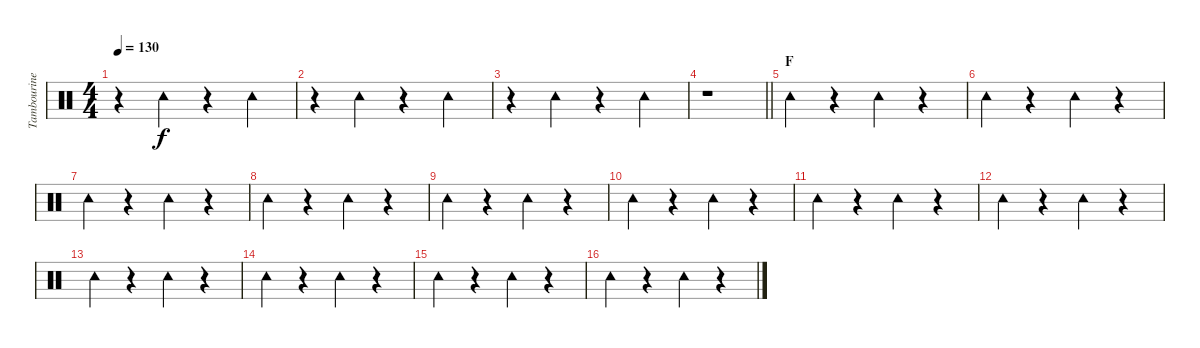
\track ("Tambourine" "Tambourine") {instrument percussion}
\staff {score}
\articulation defaults
\ts (4 4)
\tempo 130
\clef neutral
\ks c
r.4{dy f} "Tambourine (hit)".4 r.4 "Tambourine (hit)".4 |
r.4 "Tambourine (hit)".4 r.4 "Tambourine (hit)".4 |
r.4 "Tambourine (hit)".4 r.4 "Tambourine (hit)".4 |
\barLineRight lightlight
r.1 |
\section ("" "F")
"Tambourine (hit)".4 r.4 "Tambourine (hit)".4 r.4 |
"Tambourine (hit)".4 r.4 "Tambourine (hit)".4 r.4 |
"Tambourine (hit)".4 r.4 "Tambourine (hit)".4 r.4 |
"Tambourine (hit)".4 r.4 "Tambourine (hit)".4 r.4 |
"Tambourine (hit)".4 r.4 "Tambourine (hit)".4 r.4 |
"Tambourine (hit)".4 r.4 "Tambourine (hit)".4 r.4 |
"Tambourine (hit)".4 r.4 "Tambourine (hit)".4 r.4 |
"Tambourine (hit)".4 r.4 "Tambourine (hit)".4 r.4 |
"Tambourine (hit)".4 r.4 "Tambourine (hit)".4 r.4 |
"Tambourine (hit)".4 r.4 "Tambourine (hit)".4 r.4 |
"Tambourine (hit)".4 r.4 "Tambourine (hit)".4 r.4 |
"Tambourine (hit)".4 r.4 "Tambourine (hit)".4 r.4
